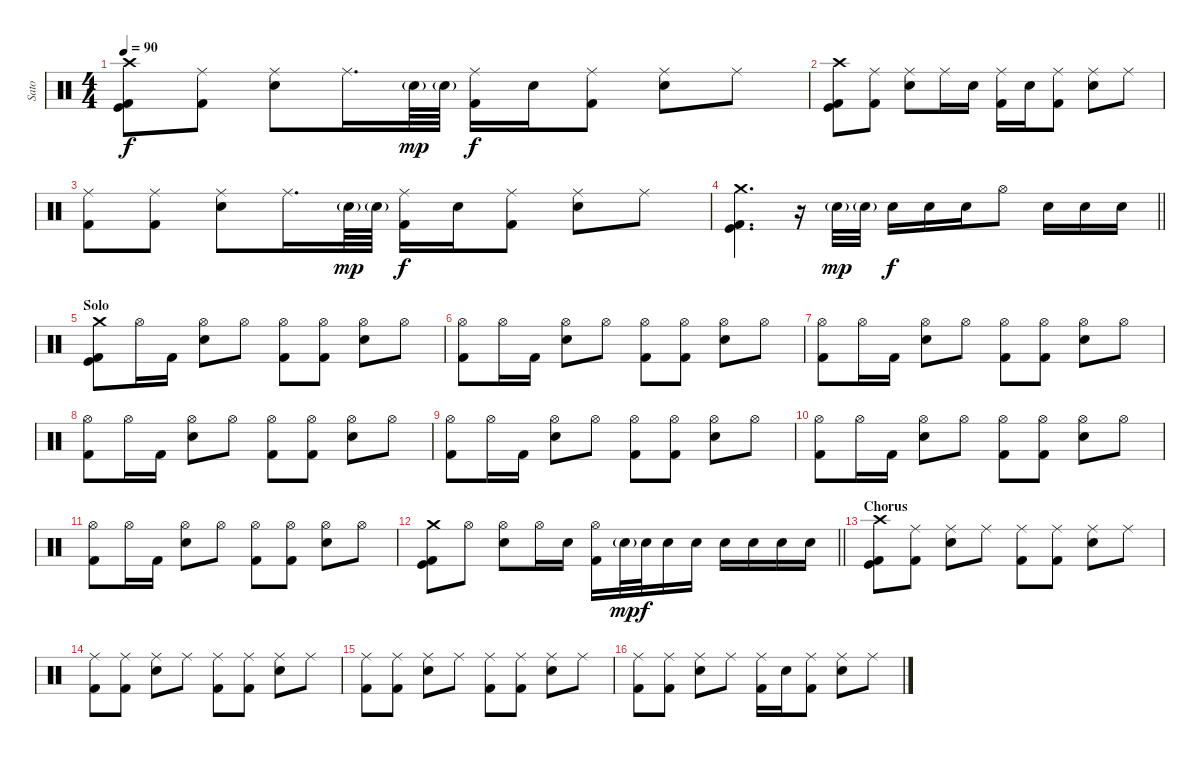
\track ("Sato" "Sato") {instrument percussion}
\staff {score}
\articulation defaults
\ts (4 4)
\tempo 90
\clef neutral
\ks c
("Crash high (hit)" "Kick (hit) 2" "Kick (hit)").8{dy f} ("Ride (middle)" "Kick (hit) 2").8 ("Ride (middle)" "Electric Snare (hit)").8 "Ride (middle)".16{d} "Electric Snare (hit)"{g}.64{dy mp} "Electric Snare (hit)"{g}.64 ("Ride (middle)" "Kick (hit) 2").16{dy f} "Electric Snare (hit)".16 ("Ride (middle)" "Kick (hit) 2").8 ("Ride (middle)" "Electric Snare (hit)").8 "Ride (middle)".8 |
("Crash high (hit)" "Kick (hit) 2" "Kick (hit)").8 ("Ride (middle)" "Kick (hit) 2").8 ("Ride (middle)" "Electric Snare (hit)").8 "Ride (middle)".16 "Electric Snare (hit)".16 ("Ride (middle)" "Kick (hit) 2").16 "Electric Snare (hit)".16 ("Ride (middle)" "Kick (hit) 2").8 ("Ride (middle)" "Electric Snare (hit)").8 "Ride (middle)".8 |
("Ride (middle)" "Kick (hit) 2").8 ("Ride (middle)" "Kick (hit) 2").8 ("Ride (middle)" "Electric Snare (hit)").8 "Ride (middle)".16{d} "Electric Snare (hit)"{g}.64{dy mp} "Electric Snare (hit)"{g}.64 ("Ride (middle)" "Kick (hit) 2").16{dy f} "Electric Snare (hit)".16 ("Ride (middle)" "Kick (hit) 2").8 ("Ride (middle)" "Electric Snare (hit)").8 "Ride (middle)".8 |
\barLineRight lightlight
("Crash medium (hit)" "Kick (hit) 2" "Kick (hit)").4{d} r.16 "Electric Snare (hit)"{g}.32{dy mp} "Electric Snare (hit)"{g}.32 "Electric Snare (hit)".16{dy f} "Electric Snare (hit)".16 "Electric Snare (hit)".16 "Hi-Hat (open)".8 "Electric Snare (hit)".16 "Electric Snare (hit)".16 "Electric Snare (hit)".16 |
\section ("" "Solo")
("Crash medium (hit)" "Kick (hit) 2" "Kick (hit)").8 "Hi-Hat (open)".16 "Kick (hit) 2".16 ("Hi-Hat (open)" "Electric Snare (hit)").8 "Hi-Hat (open)".8 ("Hi-Hat (open)" "Kick (hit) 2").8 ("Hi-Hat (open)" "Kick (hit) 2").8 ("Hi-Hat (open)" "Electric Snare (hit)").8 "Hi-Hat (open)".8 |
("Hi-Hat (open)" "Kick (hit) 2").8 "Hi-Hat (open)".16 "Kick (hit) 2".16 ("Hi-Hat (open)" "Electric Snare (hit)").8 "Hi-Hat (open)".8 ("Hi-Hat (open)" "Kick (hit) 2").8 ("Hi-Hat (open)" "Kick (hit) 2").8 ("Hi-Hat (open)" "Electric Snare (hit)").8 "Hi-Hat (open)".8 |
("Hi-Hat (open)" "Kick (hit) 2").8 "Hi-Hat (open)".16 "Kick (hit) 2".16 ("Hi-Hat (open)" "Electric Snare (hit)").8 "Hi-Hat (open)".8 ("Hi-Hat (open)" "Kick (hit) 2").8 ("Hi-Hat (open)" "Kick (hit) 2").8 ("Hi-Hat (open)" "Electric Snare (hit)").8 "Hi-Hat (open)".8 |
("Hi-Hat (open)" "Kick (hit) 2").8 "Hi-Hat (open)".16 "Kick (hit) 2".16 ("Hi-Hat (open)" "Electric Snare (hit)").8 "Hi-Hat (open)".8 ("Hi-Hat (open)" "Kick (hit) 2").8 ("Hi-Hat (open)" "Kick (hit) 2").8 ("Hi-Hat (open)" "Electric Snare (hit)").8 "Hi-Hat (open)".8 |
("Hi-Hat (open)" "Kick (hit) 2").8 "Hi-Hat (open)".16 "Kick (hit) 2".16 ("Hi-Hat (open)" "Electric Snare (hit)").8 "Hi-Hat (open)".8 ("Hi-Hat (open)" "Kick (hit) 2").8 ("Hi-Hat (open)" "Kick (hit) 2").8 ("Hi-Hat (open)" "Electric Snare (hit)").8 "Hi-Hat (open)".8 |
("Hi-Hat (open)" "Kick (hit) 2").8 "Hi-Hat (open)".16 "Kick (hit) 2".16 ("Hi-Hat (open)" "Electric Snare (hit)").8 "Hi-Hat (open)".8 ("Hi-Hat (open)" "Kick (hit) 2").8 ("Hi-Hat (open)" "Kick (hit) 2").8 ("Hi-Hat (open)" "Electric Snare (hit)").8 "Hi-Hat (open)".8 |
("Hi-Hat (open)" "Kick (hit) 2").8 "Hi-Hat (open)".16 "Kick (hit) 2".16 ("Hi-Hat (open)" "Electric Snare (hit)").8 "Hi-Hat (open)".8 ("Hi-Hat (open)" "Kick (hit) 2").8 ("Hi-Hat (open)" "Kick (hit) 2").8 ("Hi-Hat (open)" "Electric Snare (hit)").8 "Hi-Hat (open)".8 |
\barLineRight lightlight
("Crash medium (hit)" "Kick (hit) 2" "Kick (hit)").8 "Hi-Hat (open)".8 ("Hi-Hat (open)" "Electric Snare (hit)").8 "Hi-Hat (open)".16 "Electric Snare (hit)".16 ("Hi-Hat (open)" "Kick (hit) 2").16 "Electric Snare (hit)"{g}.32{dy mp} "Electric Snare (hit)".32{dy f} "Electric Snare (hit)".16 "Electric Snare (hit)".16 "Electric Snare (hit)".16 "Electric Snare (hit)".16 "Electric Snare (hit)".16 "Electric Snare (hit)".16 |
\section ("" "Chorus")
("Crash high (hit)" "Kick (hit) 2" "Kick (hit)").8 ("Ride (middle)" "Kick (hit) 2").8 ("Ride (middle)" "Electric Snare (hit)").8 "Ride (middle)".8 ("Ride (middle)" "Kick (hit) 2").8 ("Ride (middle)" "Kick (hit) 2").8 ("Ride (middle)" "Electric Snare (hit)").8 "Ride (middle)".8 |
("Ride (middle)" "Kick (hit) 2").8 ("Ride (middle)" "Kick (hit) 2").8 ("Ride (middle)" "Electric Snare (hit)").8 "Ride (middle)".8 ("Ride (middle)" "Kick (hit) 2").8 ("Ride (middle)" "Kick (hit) 2").8 ("Ride (middle)" "Electric Snare (hit)").8 "Ride (middle)".8 |
("Ride (middle)" "Kick (hit) 2").8 ("Ride (middle)" "Kick (hit) 2").8 ("Ride (middle)" "Electric Snare (hit)").8 "Ride (middle)".8 ("Ride (middle)" "Kick (hit) 2").8 ("Ride (middle)" "Kick (hit) 2").8 ("Ride (middle)" "Electric Snare (hit)").8 "Ride (middle)".8 |
("Ride (middle)" "Kick (hit) 2").8 ("Ride (middle)" "Kick (hit) 2").8 ("Ride (middle)" "Electric Snare (hit)").8 "Ride (middle)".8 ("Ride (middle)" "Kick (hit) 2").16 "Electric Snare (hit)".16 ("Ride (middle)" "Kick (hit) 2").8 ("Ride (middle)" "Electric Snare (hit)").8 "Ride (middle)".8
